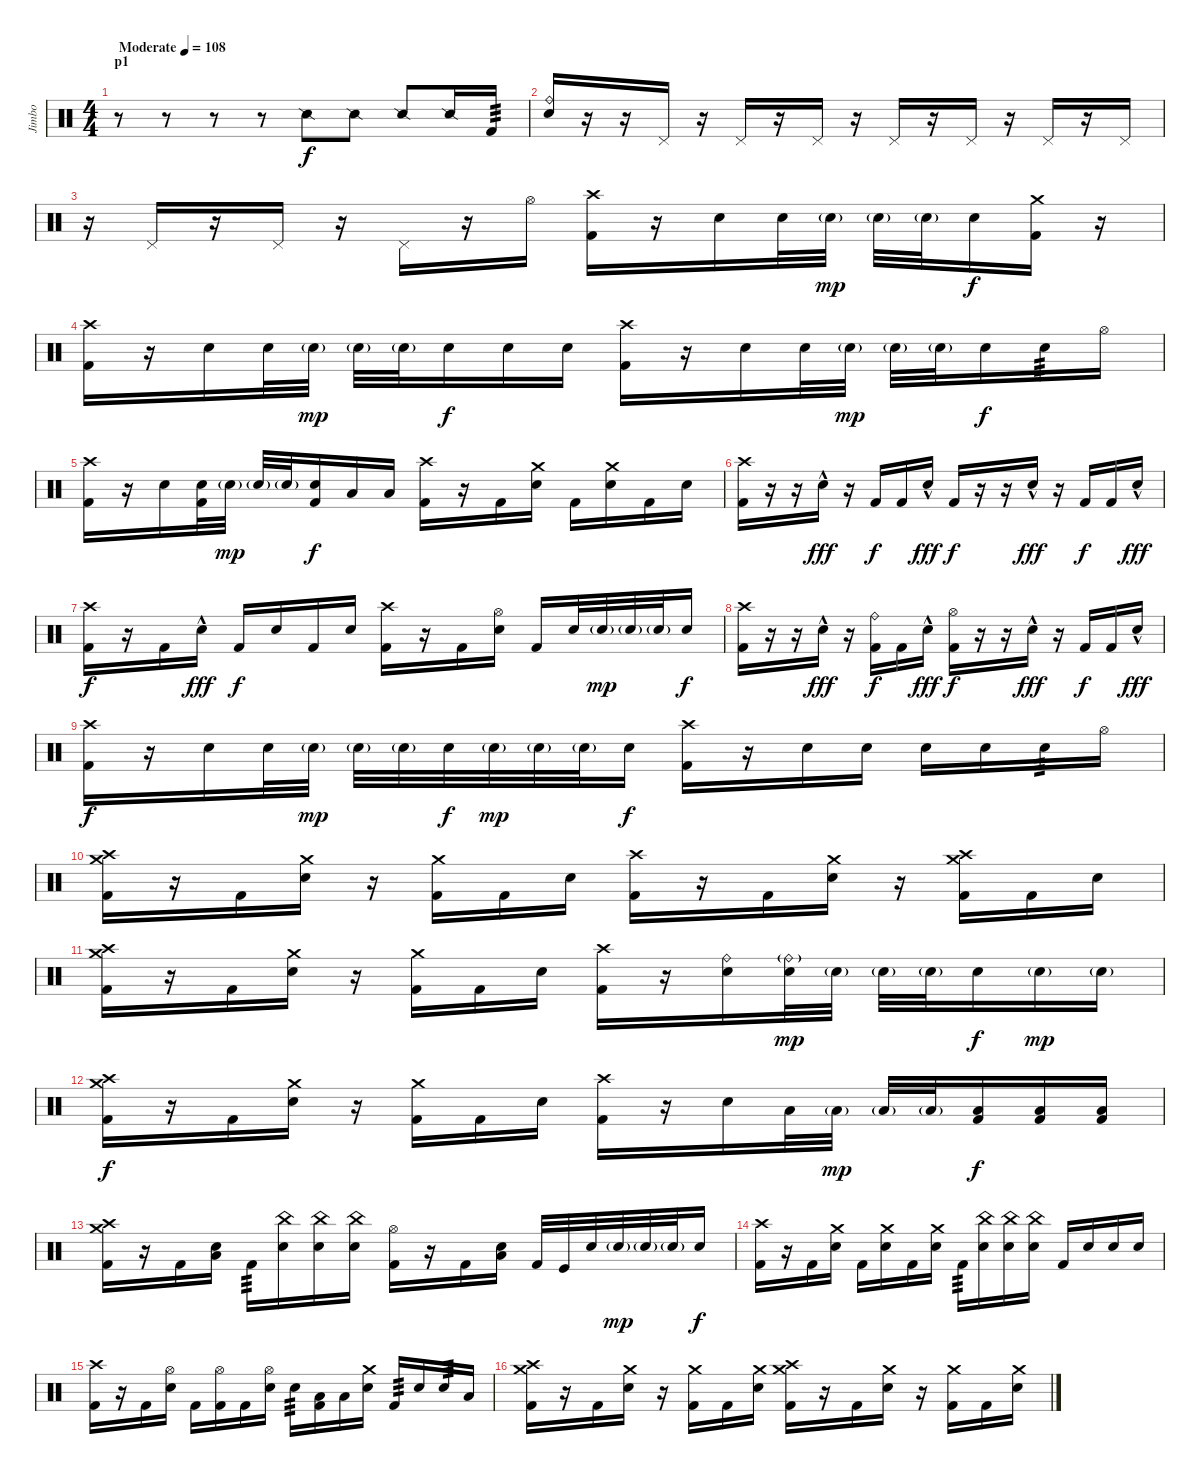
\track ("Jimbo" "Jimbo") {instrument percussion}
\staff
\articulation defaults
\ts (4 4)
\section ("" "p1")
\tempo (108 "Moderate")
\clef neutral
\ks c
r.8{dy f} r.8 r.8 r.8 "Snare (side stick) 2".8 "Snare (side stick) 2".8 "Snare (side stick) 2".8 "Snare (side stick) 2".16 "Kick (hit) 2".16{tp 3} |
("Electric Snare (hit)" "Ride (bell)").16 r.16 r.16 "Pedal Hi-Hat (hit)".16 r.16 "Pedal Hi-Hat (hit)".16 r.16 "Pedal Hi-Hat (hit)".16 r.16 "Pedal Hi-Hat (hit)".16 r.16 "Pedal Hi-Hat (hit)".16 r.16 "Pedal Hi-Hat (hit)".16 r.16 "Pedal Hi-Hat (hit)".16 |
r.16 "Pedal Hi-Hat (hit)".16 r.16 "Pedal Hi-Hat (hit)".16 r.16 "Pedal Hi-Hat (hit)".16 r.16 "Hi-Hat (open)".16 ("Kick (hit) 2" "Crash high (hit)").16 r.16 "Electric Snare (hit)".16 "Electric Snare (hit)".32 "Electric Snare (hit)"{g}.32{dy mp} "Electric Snare (hit)"{g}.32 "Electric Snare (hit)"{g}.32 "Electric Snare (hit)".16{dy f} ("Kick (hit) 2" "Crash medium (hit)").16 r.16 |
("Kick (hit) 2" "Crash high (hit)").16 r.16 "Electric Snare (hit)".16 "Electric Snare (hit)".32 "Electric Snare (hit)"{g}.32{dy mp} "Electric Snare (hit)"{g}.32 "Electric Snare (hit)"{g}.32 "Electric Snare (hit)".16{dy f} "Electric Snare (hit)".16 "Electric Snare (hit)".16 ("Kick (hit) 2" "Crash high (hit)").16 r.16 "Electric Snare (hit)".16 "Electric Snare (hit)".32 "Electric Snare (hit)"{g}.32{dy mp} "Electric Snare (hit)"{g}.32 "Electric Snare (hit)"{g}.32 "Electric Snare (hit)".16{dy f} "Electric Snare (hit)".16{tp 3} "Hi-Hat (open)".16 |
("Kick (hit) 2" "Crash high (hit)").16 r.16 "Electric Snare (hit)".16 ("Electric Snare (hit)" "Kick (hit) 2").32 "Electric Snare (hit)"{g}.32{dy mp} "Electric Snare (hit)"{g}.32 "Electric Snare (hit)"{g}.32 ("Electric Snare (hit)" "Kick (hit) 2").16{dy f} "Low Tom (hit)".16 "Low Floor Tom (hit)".16 ("Kick (hit) 2" "Crash high (hit)").16 r.16 "Kick (hit) 2".16 ("Electric Snare (hit)" "Crash medium (hit)").16 "Kick (hit) 2".16 ("Electric Snare (hit)" "Crash medium (hit)").16 "Kick (hit) 2".16 "Electric Snare (hit)".16 |
("Kick (hit) 2" "Crash high (hit)").16 r.16 r.16 "Electric Snare (hit)"{hac}.16{dy fff} r.16 "Kick (hit) 2".16{dy f} "Kick (hit) 2".16 "Electric Snare (hit)"{hac}.16{dy fff} "Kick (hit) 2".16{dy f} r.16 r.16 "Electric Snare (hit)"{hac}.16{dy fff} r.16 "Kick (hit) 2".16{dy f} "Kick (hit) 2".16 "Electric Snare (hit)"{hac}.16{dy fff} |
("Kick (hit) 2" "Crash high (hit)").16{dy f} r.16 "Kick (hit) 2".16 "Electric Snare (hit)"{hac}.16{dy fff} "Kick (hit) 2".16{dy f} "Electric Snare (hit)".16 "Kick (hit) 2".16 "Electric Snare (hit)".16 ("Kick (hit) 2" "Crash high (hit)").16 r.16 "Kick (hit) 2".16 ("Electric Snare (hit)" "Hi-Hat (open)").16 "Kick (hit) 2".16 "Electric Snare (hit)".32 "Electric Snare (hit)"{g}.32{dy mp} "Electric Snare (hit)"{g}.32 "Electric Snare (hit)"{g}.32 "Electric Snare (hit)".16{dy f} |
("Kick (hit) 2" "Crash high (hit)").16 r.16 r.16 "Electric Snare (hit)"{hac}.16{dy fff} r.16 ("Kick (hit) 2" "Ride (bell)").16{dy f} "Kick (hit) 2".16 "Electric Snare (hit)"{hac}.16{dy fff} ("Kick (hit) 2" "Hi-Hat (open)").16{dy f} r.16 r.16 "Electric Snare (hit)"{hac}.16{dy fff} r.16 "Kick (hit) 2".16{dy f} "Kick (hit) 2".16 "Electric Snare (hit)"{hac}.16{dy fff} |
("Kick (hit) 2" "Crash high (hit)").16{dy f} r.16 "Electric Snare (hit)".16 "Electric Snare (hit)".32 "Electric Snare (hit)"{g}.32{dy mp} "Electric Snare (hit)"{g}.32 "Electric Snare (hit)"{g}.32 "Electric Snare (hit)".32{dy f} "Electric Snare (hit)"{g}.32{dy mp} "Electric Snare (hit)"{g}.32 "Electric Snare (hit)"{g}.32 "Electric Snare (hit)".16{dy f} ("Kick (hit) 2" "Crash high (hit)").16 r.16 "Electric Snare (hit)".16 "Electric Snare (hit)".16 "Electric Snare (hit)".16 "Electric Snare (hit)".16 "Electric Snare (hit)".16{tp 3} "Hi-Hat (open)".16 |
("Kick (hit) 2" "Crash medium (hit)" "Crash high (hit)").16 r.16 "Kick (hit) 2".16 ("Electric Snare (hit)" "Crash medium (hit)").16 r.16 ("Kick (hit) 2" "Crash medium (hit)").16 "Kick (hit) 2".16 "Electric Snare (hit)".16 ("Kick (hit) 2" "Crash high (hit)").16 r.16 "Kick (hit) 2".16 ("Electric Snare (hit)" "Crash medium (hit)").16 r.16 ("Kick (hit) 2" "Crash high (hit)" "Crash medium (hit)").16 "Kick (hit) 2".16 "Electric Snare (hit)".16 |
("Kick (hit) 2" "Crash medium (hit)" "Crash high (hit)").16 r.16 "Kick (hit) 2".16 ("Electric Snare (hit)" "Crash medium (hit)").16 r.16 ("Kick (hit) 2" "Crash medium (hit)").16 "Kick (hit) 2".16 "Electric Snare (hit)".16 ("Kick (hit) 2" "Crash high (hit)").16 r.16 ("Electric Snare (hit)" "Ride (bell)").16 ("Electric Snare (hit)" "Ride (bell)"{g}).32{dy mp} "Electric Snare (hit)"{g}.32 "Electric Snare (hit)"{g}.32 "Electric Snare (hit)"{g}.32 "Electric Snare (hit)".16{dy f} "Electric Snare (hit)"{g}.16{dy mp} "Electric Snare (hit)"{g}.16 |
("Kick (hit) 2" "Crash medium (hit)" "Crash high (hit)").16{dy f} r.16 "Kick (hit) 2".16 ("Electric Snare (hit)" "Crash medium (hit)").16 r.16 ("Kick (hit) 2" "Crash medium (hit)").16 "Kick (hit) 2".16 "Electric Snare (hit)".16 ("Kick (hit) 2" "Crash high (hit)").16 r.16 "Electric Snare (hit)".16 "Low Tom (hit)".32 "Low Tom (hit)"{g}.32{dy mp} "Low Tom (hit)"{g}.32 "Low Tom (hit)"{g}.32 ("Low Tom (hit)" "Kick (hit) 2").16{dy f} ("Low Tom (hit)" "Kick (hit) 2").16 ("Low Floor Tom (hit)" "Kick (hit) 2").16 |
("Kick (hit) 2" "Crash medium (hit)" "Crash high (hit)").16 r.16 "Kick (hit) 2".16 ("Electric Snare (hit)" "Low Floor Tom (hit)").16 "Kick (hit) 2".16{tp 3} ("Electric Snare (hit)" "China (hit)").16 ("Electric Snare (hit)" "China (hit)").16 ("Electric Snare (hit)" "China (hit)").16 ("Kick (hit) 2" "Hi-Hat (open)").16 r.16 "Kick (hit) 2".16 ("Electric Snare (hit)" "Low Floor Tom (hit)").16 "Kick (hit) 2".32 "Kick (hit)".32 "Electric Snare (hit)".32 "Electric Snare (hit)"{g}.32{dy mp} "Electric Snare (hit)"{g}.32 "Electric Snare (hit)"{g}.32 "Electric Snare (hit)".16{dy f} |
("Kick (hit) 2" "Crash high (hit)").16 r.16 "Kick (hit) 2".16 ("Electric Snare (hit)" "Crash medium (hit)").16 "Kick (hit) 2".16 ("Electric Snare (hit)" "Crash medium (hit)").16 "Kick (hit) 2".16 ("Electric Snare (hit)" "Crash medium (hit)").16 "Kick (hit) 2".16{tp 3} ("Electric Snare (hit)" "China (hit)").16 ("Electric Snare (hit)" "China (hit)").16 ("Electric Snare (hit)" "China (hit)").16 "Kick (hit) 2".16 "Electric Snare (hit)".16 "Electric Snare (hit)".16 "Electric Snare (hit)".16 |
("Kick (hit) 2" "Crash high (hit)").16 r.16 "Kick (hit) 2".16 ("Electric Snare (hit)" "Hi-Hat (open)").16 "Kick (hit) 2".16 ("Kick (hit) 2" "Hi-Hat (open)").16 "Kick (hit) 2".16 ("Electric Snare (hit)" "Hi-Hat (open)").16 "Electric Snare (hit)".16{tp 3} ("Low Tom (hit)" "Kick (hit) 2").16 "Low Floor Tom (hit)".16 ("Electric Snare (hit)" "Crash medium (hit)").16 "Kick (hit) 2".16{tp 3} "Electric Snare (hit)".16 "Electric Snare (hit)".16{tp 3} "Low Tom (hit)".16 |
("Kick (hit) 2" "Crash medium (hit)" "Crash high (hit)").16 r.16 "Kick (hit) 2".16 ("Electric Snare (hit)" "Crash medium (hit)").16 r.16 ("Kick (hit) 2" "Crash medium (hit)").16 "Kick (hit) 2".16 ("Electric Snare (hit)" "Crash medium (hit)").16 ("Kick (hit) 2" "Crash medium (hit)" "Crash high (hit)").16 r.16 "Kick (hit) 2".16 ("Electric Snare (hit)" "Crash medium (hit)").16 r.16 ("Kick (hit) 2" "Crash medium (hit)").16 "Kick (hit) 2".16 ("Electric Snare (hit)" "Crash medium (hit)").16
